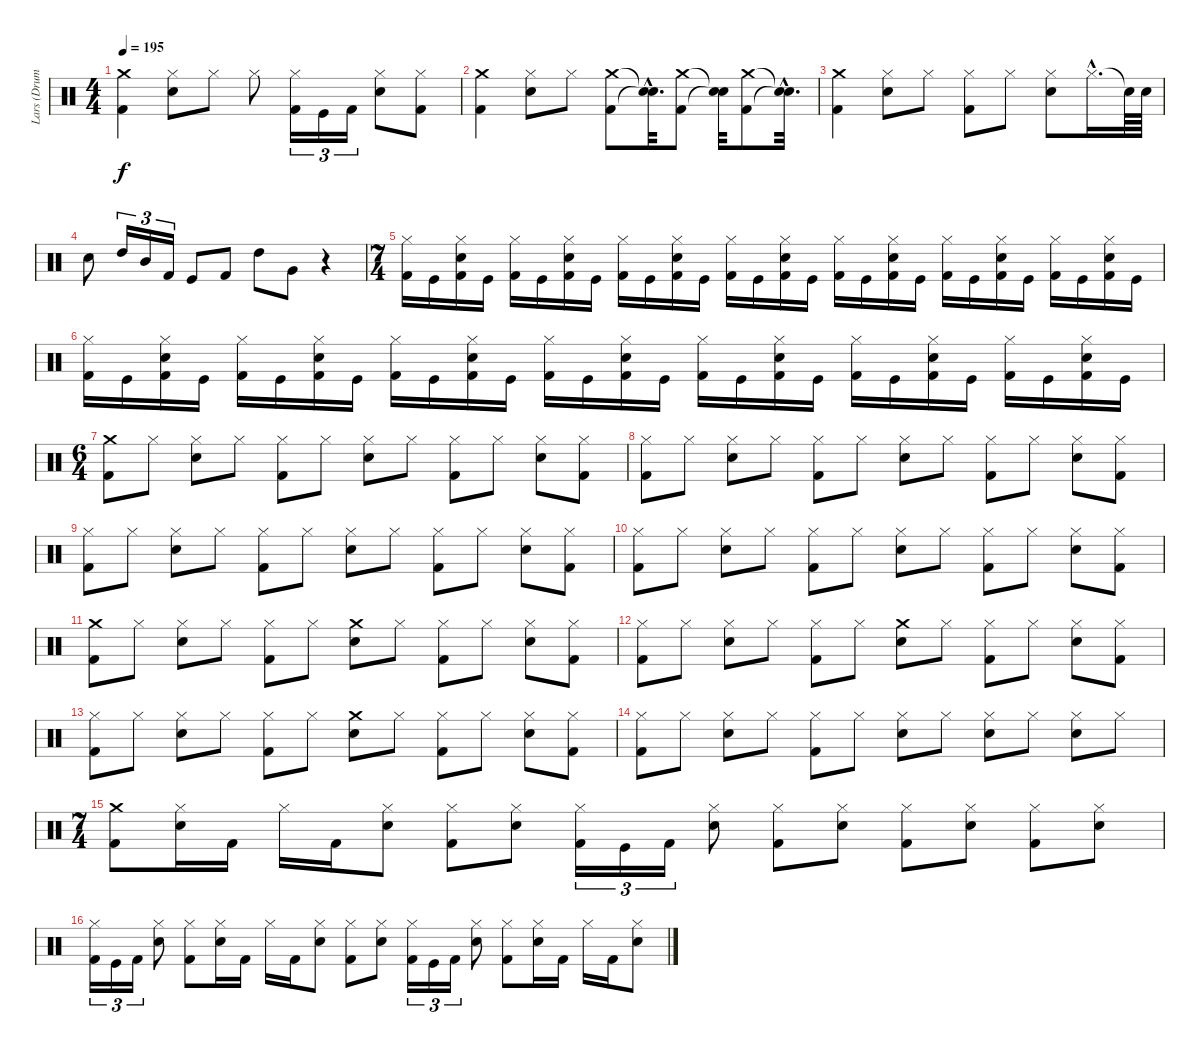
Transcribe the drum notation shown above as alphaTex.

\track ("Lars (Drums)" "Lars (Drum") {instrument percussion}
\staff {score}
\articulation defaults
\ts (4 4)
\tempo 195
\clef neutral
\ks c
("Kick (hit) 2" "Crash medium (hit)").4{dy f} ("Snare (hit) 2" "Hi-Hat (closed)").8 "Hi-Hat (closed)".8 "Hi-Hat (closed)".8 ("Kick (hit) 2" "Hi-Hat (closed)").16{tu (3 2)} "Kick (hit)".16{tu (3 2)} "Kick (hit) 2".16{tu (3 2)} ("Snare (hit) 2" "Hi-Hat (closed)").8 ("Kick (hit) 2" "Hi-Hat (closed)").8 |
("Kick (hit) 2" "Crash medium (hit)").4 ("Hi-Hat (closed)" "Snare (hit) 2").8 "Hi-Hat (closed)".8 ("Kick (hit) 2" "Crash medium (hit)").8 ("Snare (hit)"{hac t} "Snare (hit)"{hac t}).32{d} ("Kick (hit) 2" "Crash medium (hit)").8 ("Snare (hit)"{t} "Snare (hit)"{t}).32 ("Kick (hit) 2" "Crash medium (hit)").8 ("Snare (hit)"{hac t} "Snare (hit)"{hac t}).32{d} |
("Kick (hit) 2" "Crash medium (hit)").4 ("Hi-Hat (closed)" "Snare (hit) 2").8 "Hi-Hat (closed)".8 ("Hi-Hat (closed)" "Kick (hit) 2").8 "Hi-Hat (closed)".8 ("Snare (hit) 2" "Hi-Hat (closed)").8 "Hi-Hat (closed)"{hac}.16{d} "Snare (hit)"{t}.64 "Snare (hit) 2".64 |
"Snare (hit) 2".8 "High Tom (hit)".16{tu (3 2)} "Mid Tom (hit)".16{tu (3 2)} "Kick (hit) 2".16{tu (3 2)} "Kick (hit)".8 "Kick (hit) 2".8 "High Tom (hit)".8 "Very Low Tom (hit)".8 r.4 |
\ts (7 4)
("Hi-Hat (closed)" "Kick (hit) 2").16 "Kick (hit)".16 ("Snare (hit) 2" "Hi-Hat (closed)" "Kick (hit) 2").16 "Kick (hit)".16 ("Hi-Hat (closed)" "Kick (hit) 2").16 "Kick (hit)".16 ("Snare (hit) 2" "Hi-Hat (closed)" "Kick (hit) 2").16 "Kick (hit)".16 ("Hi-Hat (closed)" "Kick (hit) 2").16 "Kick (hit)".16 ("Snare (hit) 2" "Hi-Hat (closed)" "Kick (hit) 2").16 "Kick (hit)".16 ("Hi-Hat (closed)" "Kick (hit) 2").16 "Kick (hit)".16 ("Snare (hit) 2" "Hi-Hat (closed)" "Kick (hit) 2").16 "Kick (hit)".16 ("Hi-Hat (closed)" "Kick (hit) 2").16 "Kick (hit)".16 ("Snare (hit) 2" "Hi-Hat (closed)" "Kick (hit) 2").16 "Kick (hit)".16 ("Hi-Hat (closed)" "Kick (hit) 2").16 "Kick (hit)".16 ("Snare (hit) 2" "Hi-Hat (closed)" "Kick (hit) 2").16 "Kick (hit)".16 ("Hi-Hat (closed)" "Kick (hit) 2").16 "Kick (hit)".16 ("Snare (hit) 2" "Hi-Hat (closed)" "Kick (hit) 2").16 "Kick (hit)".16 |
("Hi-Hat (closed)" "Kick (hit) 2").16 "Kick (hit)".16 ("Snare (hit) 2" "Hi-Hat (closed)" "Kick (hit) 2").16 "Kick (hit)".16 ("Hi-Hat (closed)" "Kick (hit) 2").16 "Kick (hit)".16 ("Snare (hit) 2" "Hi-Hat (closed)" "Kick (hit) 2").16 "Kick (hit)".16 ("Hi-Hat (closed)" "Kick (hit) 2").16 "Kick (hit)".16 ("Snare (hit) 2" "Hi-Hat (closed)" "Kick (hit) 2").16 "Kick (hit)".16 ("Hi-Hat (closed)" "Kick (hit) 2").16 "Kick (hit)".16 ("Snare (hit) 2" "Hi-Hat (closed)" "Kick (hit) 2").16 "Kick (hit)".16 ("Hi-Hat (closed)" "Kick (hit) 2").16 "Kick (hit)".16 ("Snare (hit) 2" "Hi-Hat (closed)" "Kick (hit) 2").16 "Kick (hit)".16 ("Hi-Hat (closed)" "Kick (hit) 2").16 "Kick (hit)".16 ("Snare (hit) 2" "Hi-Hat (closed)" "Kick (hit) 2").16 "Kick (hit)".16 ("Hi-Hat (closed)" "Kick (hit) 2").16 "Kick (hit)".16 ("Snare (hit) 2" "Hi-Hat (closed)" "Kick (hit) 2").16 "Kick (hit)".16 |
\ts (6 4)
("Kick (hit) 2" "Crash medium (hit)").8 "Hi-Hat (closed)".8 ("Snare (hit) 2" "Hi-Hat (closed)").8 "Hi-Hat (closed)".8 ("Kick (hit) 2" "Hi-Hat (closed)").8 "Hi-Hat (closed)".8 ("Snare (hit) 2" "Hi-Hat (closed)").8 "Hi-Hat (closed)".8 ("Kick (hit) 2" "Hi-Hat (closed)").8 "Hi-Hat (closed)".8 ("Snare (hit) 2" "Hi-Hat (closed)").8 ("Kick (hit) 2" "Hi-Hat (closed)").8 |
("Hi-Hat (closed)" "Kick (hit) 2").8 "Hi-Hat (closed)".8 ("Snare (hit) 2" "Hi-Hat (closed)").8 "Hi-Hat (closed)".8 ("Kick (hit) 2" "Hi-Hat (closed)").8 "Hi-Hat (closed)".8 ("Snare (hit) 2" "Hi-Hat (closed)").8 "Hi-Hat (closed)".8 ("Kick (hit) 2" "Hi-Hat (closed)").8 "Hi-Hat (closed)".8 ("Snare (hit) 2" "Hi-Hat (closed)").8 ("Kick (hit) 2" "Hi-Hat (closed)").8 |
("Hi-Hat (closed)" "Kick (hit) 2").8 "Hi-Hat (closed)".8 ("Snare (hit) 2" "Hi-Hat (closed)").8 "Hi-Hat (closed)".8 ("Kick (hit) 2" "Hi-Hat (closed)").8 "Hi-Hat (closed)".8 ("Snare (hit) 2" "Hi-Hat (closed)").8 "Hi-Hat (closed)".8 ("Kick (hit) 2" "Hi-Hat (closed)").8 "Hi-Hat (closed)".8 ("Snare (hit) 2" "Hi-Hat (closed)").8 ("Kick (hit) 2" "Hi-Hat (closed)").8 |
("Hi-Hat (closed)" "Kick (hit) 2").8 "Hi-Hat (closed)".8 ("Snare (hit) 2" "Hi-Hat (closed)").8 "Hi-Hat (closed)".8 ("Kick (hit) 2" "Hi-Hat (closed)").8 "Hi-Hat (closed)".8 ("Snare (hit) 2" "Hi-Hat (closed)").8 "Hi-Hat (closed)".8 ("Kick (hit) 2" "Hi-Hat (closed)").8 "Hi-Hat (closed)".8 ("Snare (hit) 2" "Hi-Hat (closed)").8 ("Kick (hit) 2" "Hi-Hat (closed)").8 |
("Kick (hit) 2" "Crash medium (hit)").8 "Hi-Hat (closed)".8 ("Snare (hit) 2" "Hi-Hat (closed)").8 "Hi-Hat (closed)".8 ("Kick (hit) 2" "Hi-Hat (closed)").8 "Hi-Hat (closed)".8 ("Crash medium (hit)" "Snare (hit) 2").8 "Hi-Hat (closed)".8 ("Kick (hit) 2" "Hi-Hat (closed)").8 "Hi-Hat (closed)".8 ("Snare (hit) 2" "Hi-Hat (closed)").8 ("Kick (hit) 2" "Hi-Hat (closed)").8 |
("Hi-Hat (closed)" "Kick (hit) 2").8 "Hi-Hat (closed)".8 ("Snare (hit) 2" "Hi-Hat (closed)").8 "Hi-Hat (closed)".8 ("Kick (hit) 2" "Hi-Hat (closed)").8 "Hi-Hat (closed)".8 ("Crash medium (hit)" "Snare (hit) 2").8 "Hi-Hat (closed)".8 ("Kick (hit) 2" "Hi-Hat (closed)").8 "Hi-Hat (closed)".8 ("Snare (hit) 2" "Hi-Hat (closed)").8 ("Kick (hit) 2" "Hi-Hat (closed)").8 |
("Hi-Hat (closed)" "Kick (hit) 2").8 "Hi-Hat (closed)".8 ("Snare (hit) 2" "Hi-Hat (closed)").8 "Hi-Hat (closed)".8 ("Kick (hit) 2" "Hi-Hat (closed)").8 "Hi-Hat (closed)".8 ("Crash medium (hit)" "Snare (hit) 2").8 "Hi-Hat (closed)".8 ("Kick (hit) 2" "Hi-Hat (closed)").8 "Hi-Hat (closed)".8 ("Snare (hit) 2" "Hi-Hat (closed)").8 ("Kick (hit) 2" "Hi-Hat (closed)").8 |
("Hi-Hat (closed)" "Kick (hit) 2").8 "Hi-Hat (closed)".8 ("Snare (hit) 2" "Hi-Hat (closed)").8 "Hi-Hat (closed)".8 ("Kick (hit) 2" "Hi-Hat (closed)").8 "Hi-Hat (closed)".8 ("Snare (hit) 2" "Hi-Hat (closed)").8 "Hi-Hat (closed)".8 ("Snare (hit) 2" "Hi-Hat (closed)").8 "Hi-Hat (closed)".8 ("Snare (hit) 2" "Hi-Hat (closed)").8 "Hi-Hat (closed)".8 |
\ts (7 4)
("Kick (hit) 2" "Crash medium (hit)").8 ("Snare (hit) 2" "Hi-Hat (closed)").16 "Kick (hit) 2".16 "Hi-Hat (closed)".16 "Kick (hit) 2".16 ("Snare (hit) 2" "Hi-Hat (closed)").8 ("Kick (hit) 2" "Hi-Hat (closed)").8 ("Snare (hit) 2" "Hi-Hat (closed)").8 ("Kick (hit) 2" "Hi-Hat (closed)").16{tu (3 2)} "Kick (hit)".16{tu (3 2)} "Kick (hit) 2".16{tu (3 2)} ("Snare (hit) 2" "Hi-Hat (closed)").8 ("Kick (hit) 2" "Hi-Hat (closed)").8 ("Snare (hit) 2" "Hi-Hat (closed)").8 ("Kick (hit) 2" "Hi-Hat (closed)").8 ("Snare (hit) 2" "Hi-Hat (closed)").8 ("Kick (hit) 2" "Hi-Hat (closed)").8 ("Snare (hit) 2" "Hi-Hat (closed)").8 |
("Kick (hit) 2" "Hi-Hat (closed)").16{tu (3 2)} "Kick (hit)".16{tu (3 2)} "Kick (hit) 2".16{tu (3 2)} ("Snare (hit) 2" "Hi-Hat (closed)").8 ("Kick (hit) 2" "Hi-Hat (closed)").8 ("Snare (hit) 2" "Hi-Hat (closed)").16 "Kick (hit) 2".16 "Hi-Hat (closed)".16 "Kick (hit) 2".16 ("Snare (hit) 2" "Hi-Hat (closed)").8 ("Kick (hit) 2" "Hi-Hat (closed)").8 ("Snare (hit) 2" "Hi-Hat (closed)").8 ("Kick (hit) 2" "Hi-Hat (closed)").16{tu (3 2)} "Kick (hit)".16{tu (3 2)} "Kick (hit) 2".16{tu (3 2)} ("Snare (hit) 2" "Hi-Hat (closed)").8 ("Kick (hit) 2" "Hi-Hat (closed)").8 ("Snare (hit) 2" "Hi-Hat (closed)").16 "Kick (hit) 2".16 "Hi-Hat (closed)".16 "Kick (hit) 2".16 ("Snare (hit) 2" "Hi-Hat (closed)").8
